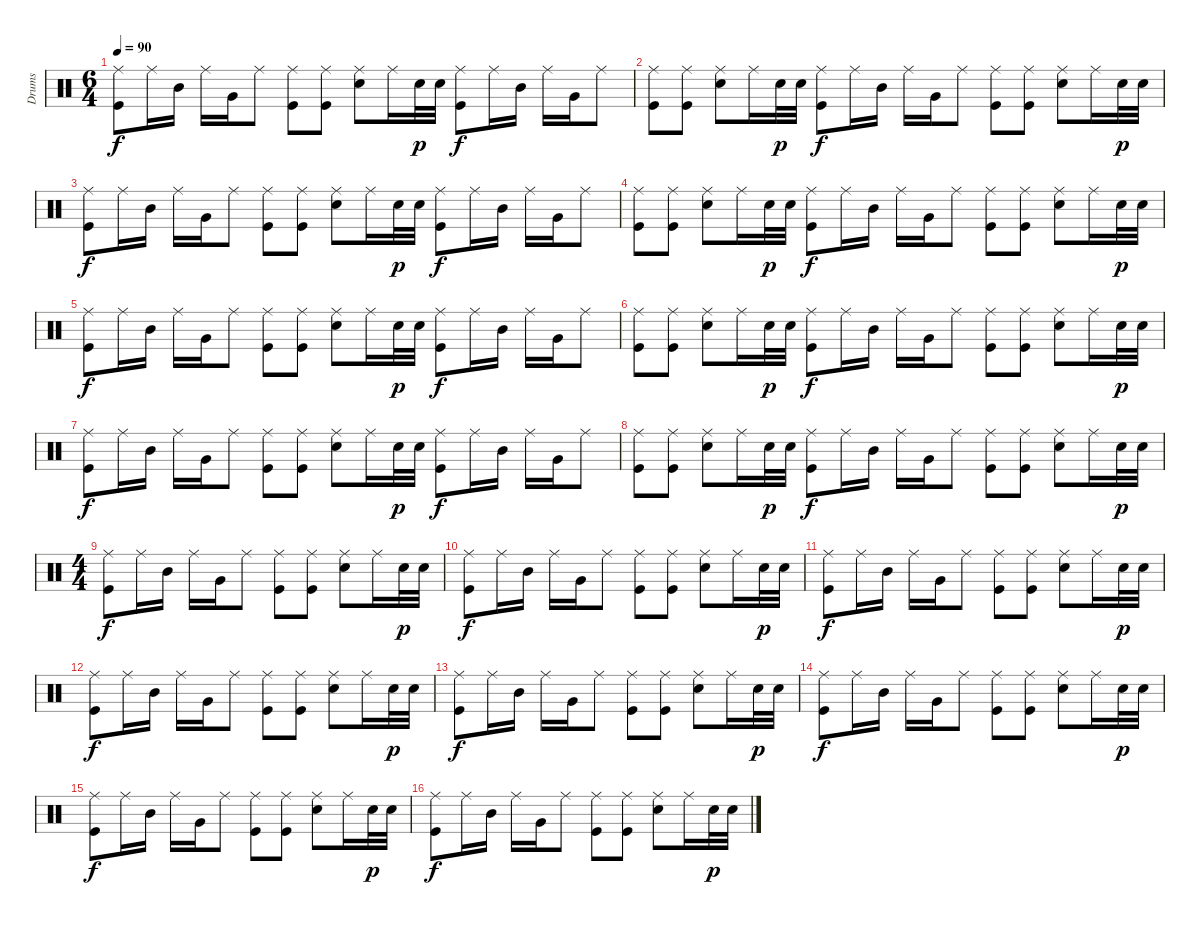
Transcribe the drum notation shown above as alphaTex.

\track ("Drums" "Drums") {instrument percussion}
\staff {score}
\articulation defaults
\ts (6 4)
\tempo 90
\clef neutral
\ks c
("Ride (middle)" "Kick (hit)").8{dy f} "Ride (middle)".16 "Mid Tom (hit)".16 "Ride (middle)".16 "Very Low Tom (hit)".16 "Ride (middle)".8 ("Ride (middle)" "Kick (hit)").8 ("Ride (middle)" "Kick (hit)").8 ("Ride (middle)" "Snare (hit) 2").8 "Ride (middle)".16 "Snare (hit) 2".32{dy p} "Snare (hit) 2".32 ("Ride (middle)" "Kick (hit)").8{dy f} "Ride (middle)".16 "Mid Tom (hit)".16 "Ride (middle)".16 "Very Low Tom (hit)".16 "Ride (middle)".8 |
("Ride (middle)" "Kick (hit)").8 ("Ride (middle)" "Kick (hit)").8 ("Ride (middle)" "Snare (hit) 2").8 "Ride (middle)".16 "Snare (hit) 2".32{dy p} "Snare (hit) 2".32 ("Ride (middle)" "Kick (hit)").8{dy f} "Ride (middle)".16 "Mid Tom (hit)".16 "Ride (middle)".16 "Very Low Tom (hit)".16 "Ride (middle)".8 ("Ride (middle)" "Kick (hit)").8 ("Ride (middle)" "Kick (hit)").8 ("Ride (middle)" "Snare (hit) 2").8 "Ride (middle)".16 "Snare (hit) 2".32{dy p} "Snare (hit) 2".32 |
("Ride (middle)" "Kick (hit)").8{dy f} "Ride (middle)".16 "Mid Tom (hit)".16 "Ride (middle)".16 "Very Low Tom (hit)".16 "Ride (middle)".8 ("Ride (middle)" "Kick (hit)").8 ("Ride (middle)" "Kick (hit)").8 ("Ride (middle)" "Snare (hit) 2").8 "Ride (middle)".16 "Snare (hit) 2".32{dy p} "Snare (hit) 2".32 ("Ride (middle)" "Kick (hit)").8{dy f} "Ride (middle)".16 "Mid Tom (hit)".16 "Ride (middle)".16 "Very Low Tom (hit)".16 "Ride (middle)".8 |
("Ride (middle)" "Kick (hit)").8 ("Ride (middle)" "Kick (hit)").8 ("Ride (middle)" "Snare (hit) 2").8 "Ride (middle)".16 "Snare (hit) 2".32{dy p} "Snare (hit) 2".32 ("Ride (middle)" "Kick (hit)").8{dy f} "Ride (middle)".16 "Mid Tom (hit)".16 "Ride (middle)".16 "Very Low Tom (hit)".16 "Ride (middle)".8 ("Ride (middle)" "Kick (hit)").8 ("Ride (middle)" "Kick (hit)").8 ("Ride (middle)" "Snare (hit) 2").8 "Ride (middle)".16 "Snare (hit) 2".32{dy p} "Snare (hit) 2".32 |
("Ride (middle)" "Kick (hit)").8{dy f} "Ride (middle)".16 "Mid Tom (hit)".16 "Ride (middle)".16 "Very Low Tom (hit)".16 "Ride (middle)".8 ("Ride (middle)" "Kick (hit)").8 ("Ride (middle)" "Kick (hit)").8 ("Ride (middle)" "Snare (hit) 2").8 "Ride (middle)".16 "Snare (hit) 2".32{dy p} "Snare (hit) 2".32 ("Ride (middle)" "Kick (hit)").8{dy f} "Ride (middle)".16 "Mid Tom (hit)".16 "Ride (middle)".16 "Very Low Tom (hit)".16 "Ride (middle)".8 |
("Ride (middle)" "Kick (hit)").8 ("Ride (middle)" "Kick (hit)").8 ("Ride (middle)" "Snare (hit) 2").8 "Ride (middle)".16 "Snare (hit) 2".32{dy p} "Snare (hit) 2".32 ("Ride (middle)" "Kick (hit)").8{dy f} "Ride (middle)".16 "Mid Tom (hit)".16 "Ride (middle)".16 "Very Low Tom (hit)".16 "Ride (middle)".8 ("Ride (middle)" "Kick (hit)").8 ("Ride (middle)" "Kick (hit)").8 ("Ride (middle)" "Snare (hit) 2").8 "Ride (middle)".16 "Snare (hit) 2".32{dy p} "Snare (hit) 2".32 |
("Ride (middle)" "Kick (hit)").8{dy f} "Ride (middle)".16 "Mid Tom (hit)".16 "Ride (middle)".16 "Very Low Tom (hit)".16 "Ride (middle)".8 ("Ride (middle)" "Kick (hit)").8 ("Ride (middle)" "Kick (hit)").8 ("Ride (middle)" "Snare (hit) 2").8 "Ride (middle)".16 "Snare (hit) 2".32{dy p} "Snare (hit) 2".32 ("Ride (middle)" "Kick (hit)").8{dy f} "Ride (middle)".16 "Mid Tom (hit)".16 "Ride (middle)".16 "Very Low Tom (hit)".16 "Ride (middle)".8 |
("Ride (middle)" "Kick (hit)").8 ("Ride (middle)" "Kick (hit)").8 ("Ride (middle)" "Snare (hit) 2").8 "Ride (middle)".16 "Snare (hit) 2".32{dy p} "Snare (hit) 2".32 ("Ride (middle)" "Kick (hit)").8{dy f} "Ride (middle)".16 "Mid Tom (hit)".16 "Ride (middle)".16 "Very Low Tom (hit)".16 "Ride (middle)".8 ("Ride (middle)" "Kick (hit)").8 ("Ride (middle)" "Kick (hit)").8 ("Ride (middle)" "Snare (hit) 2").8 "Ride (middle)".16 "Snare (hit) 2".32{dy p} "Snare (hit) 2".32 |
\ts (4 4)
("Ride (middle)" "Kick (hit)").8{dy f} "Ride (middle)".16 "Mid Tom (hit)".16 "Ride (middle)".16 "Very Low Tom (hit)".16 "Ride (middle)".8 ("Ride (middle)" "Kick (hit)").8 ("Ride (middle)" "Kick (hit)").8 ("Ride (middle)" "Snare (hit) 2").8 "Ride (middle)".16 "Snare (hit) 2".32{dy p} "Snare (hit) 2".32 |
("Ride (middle)" "Kick (hit)").8{dy f} "Ride (middle)".16 "Mid Tom (hit)".16 "Ride (middle)".16 "Very Low Tom (hit)".16 "Ride (middle)".8 ("Ride (middle)" "Kick (hit)").8 ("Ride (middle)" "Kick (hit)").8 ("Ride (middle)" "Snare (hit) 2").8 "Ride (middle)".16 "Snare (hit) 2".32{dy p} "Snare (hit) 2".32 |
("Ride (middle)" "Kick (hit)").8{dy f} "Ride (middle)".16 "Mid Tom (hit)".16 "Ride (middle)".16 "Very Low Tom (hit)".16 "Ride (middle)".8 ("Ride (middle)" "Kick (hit)").8 ("Ride (middle)" "Kick (hit)").8 ("Ride (middle)" "Snare (hit) 2").8 "Ride (middle)".16 "Snare (hit) 2".32{dy p} "Snare (hit) 2".32 |
("Ride (middle)" "Kick (hit)").8{dy f} "Ride (middle)".16 "Mid Tom (hit)".16 "Ride (middle)".16 "Very Low Tom (hit)".16 "Ride (middle)".8 ("Ride (middle)" "Kick (hit)").8 ("Ride (middle)" "Kick (hit)").8 ("Ride (middle)" "Snare (hit) 2").8 "Ride (middle)".16 "Snare (hit) 2".32{dy p} "Snare (hit) 2".32 |
("Ride (middle)" "Kick (hit)").8{dy f} "Ride (middle)".16 "Mid Tom (hit)".16 "Ride (middle)".16 "Very Low Tom (hit)".16 "Ride (middle)".8 ("Ride (middle)" "Kick (hit)").8 ("Ride (middle)" "Kick (hit)").8 ("Ride (middle)" "Snare (hit) 2").8 "Ride (middle)".16 "Snare (hit) 2".32{dy p} "Snare (hit) 2".32 |
("Ride (middle)" "Kick (hit)").8{dy f} "Ride (middle)".16 "Mid Tom (hit)".16 "Ride (middle)".16 "Very Low Tom (hit)".16 "Ride (middle)".8 ("Ride (middle)" "Kick (hit)").8 ("Ride (middle)" "Kick (hit)").8 ("Ride (middle)" "Snare (hit) 2").8 "Ride (middle)".16 "Snare (hit) 2".32{dy p} "Snare (hit) 2".32 |
("Ride (middle)" "Kick (hit)").8{dy f} "Ride (middle)".16 "Mid Tom (hit)".16 "Ride (middle)".16 "Very Low Tom (hit)".16 "Ride (middle)".8 ("Ride (middle)" "Kick (hit)").8 ("Ride (middle)" "Kick (hit)").8 ("Ride (middle)" "Snare (hit) 2").8 "Ride (middle)".16 "Snare (hit) 2".32{dy p} "Snare (hit) 2".32 |
("Ride (middle)" "Kick (hit)").8{dy f} "Ride (middle)".16 "Mid Tom (hit)".16 "Ride (middle)".16 "Very Low Tom (hit)".16 "Ride (middle)".8 ("Ride (middle)" "Kick (hit)").8 ("Ride (middle)" "Kick (hit)").8 ("Ride (middle)" "Snare (hit) 2").8 "Ride (middle)".16 "Snare (hit) 2".32{dy p} "Snare (hit) 2".32
